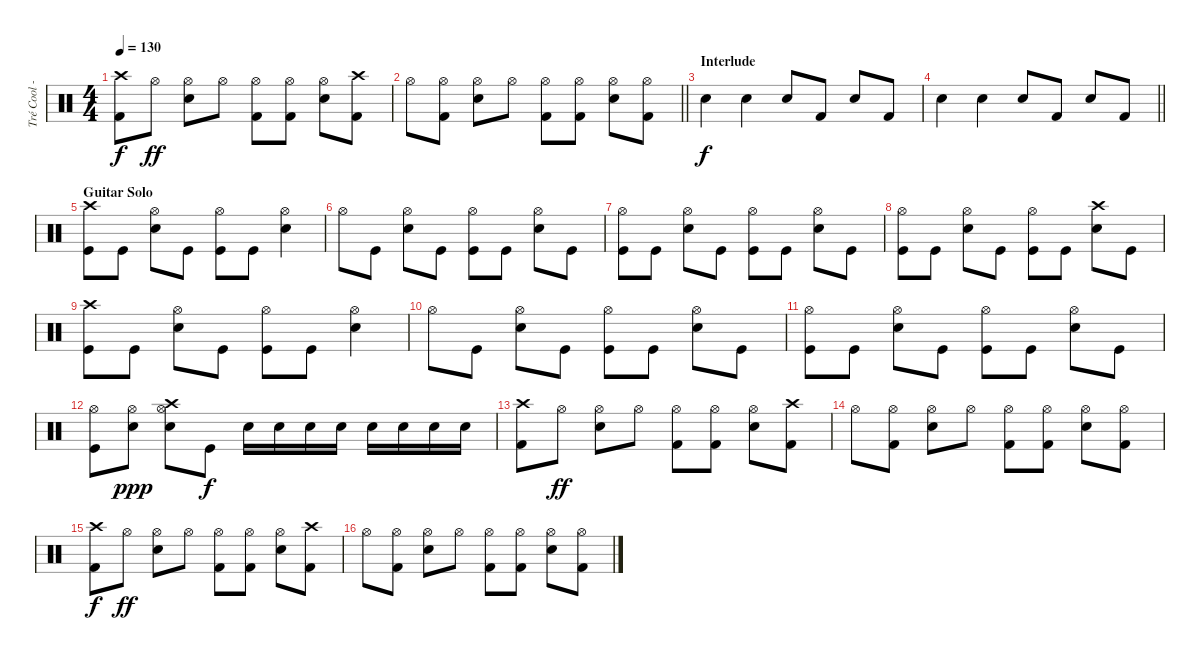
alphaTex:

\track ("Tré Cool - Drums" "Tré Cool -") {instrument percussion}
\staff {score}
\articulation defaults
\ts (4 4)
\tempo 130
\clef neutral
\ks c
("Crash high (hit)" "Kick (hit) 2").8{dy f} "Hi-Hat (open)".8{dy ff} ("Snare (hit) 2" "Hi-Hat (open)").8 "Hi-Hat (open)".8 ("Kick (hit) 2" "Hi-Hat (open)").8 ("Kick (hit) 2" "Hi-Hat (open)").8 ("Snare (hit) 2" "Hi-Hat (open)").8 ("Kick (hit) 2" "Crash high (hit)").8 |
\barLineRight lightlight "Hi-Hat (open)".8
("Kick (hit) 2" "Hi-Hat (open)").8 ("Snare (hit) 2" "Hi-Hat (open)").8 "Hi-Hat (open)".8 ("Kick (hit) 2" "Hi-Hat (open)").8 ("Kick (hit) 2" "Hi-Hat (open)").8 ("Snare (hit) 2" "Hi-Hat (open)").8 ("Kick (hit) 2" "Hi-Hat (open)").8 |
\section ("" "Interlude")
"Snare (hit) 2".4{dy f} "Snare (hit) 2".4 "Snare (hit) 2".8 "Kick (hit) 2".8 "Snare (hit) 2".8 "Kick (hit) 2".8 |
\barLineRight lightlight "Snare (hit) 2".4 "Snare (hit) 2".4 "Snare (hit) 2".8 "Kick (hit) 2".8 "Snare (hit) 2".8 "Kick (hit) 2".8
|
\section ("" "Guitar Solo")
("Kick (hit)" "Crash high (hit)").8 "Kick (hit)".8 ("Snare (hit) 2" "Hi-Hat (open)").8 "Kick (hit)".8 ("Kick (hit)" "Hi-Hat (open)").8 "Kick (hit)".8 ("Snare (hit) 2" "Hi-Hat (open)").4 |
"Hi-Hat (open)".8 "Kick (hit)".8 ("Snare (hit) 2" "Hi-Hat (open)").8 "Kick (hit)".8 ("Kick (hit)" "Hi-Hat (open)").8 "Kick (hit)".8 ("Snare (hit) 2" "Hi-Hat (open)").8 "Kick (hit)".8 |
("Kick (hit)" "Hi-Hat (open)").8 "Kick (hit)".8 ("Snare (hit) 2" "Hi-Hat (open)").8 "Kick (hit)".8 ("Kick (hit)" "Hi-Hat (open)").8 "Kick (hit)".8 ("Snare (hit) 2" "Hi-Hat (open)").8 "Kick (hit)".8 |
("Kick (hit)" "Hi-Hat (open)").8 "Kick (hit)".8 ("Snare (hit) 2" "Hi-Hat (open)").8 "Kick (hit)".8 ("Kick (hit)" "Hi-Hat (open)").8 "Kick (hit)".8 ("Snare (hit) 2" "Crash high (hit)").8 "Kick (hit)".8 |
("Kick (hit)" "Crash high (hit)").8 "Kick (hit)".8 ("Snare (hit) 2" "Hi-Hat (open)").8 "Kick (hit)".8 ("Kick (hit)" "Hi-Hat (open)").8 "Kick (hit)".8 ("Snare (hit) 2" "Hi-Hat (open)").4 |
"Hi-Hat (open)".8 "Kick (hit)".8 ("Snare (hit) 2" "Hi-Hat (open)").8 "Kick (hit)".8 ("Kick (hit)" "Hi-Hat (open)").8 "Kick (hit)".8 ("Snare (hit) 2" "Hi-Hat (open)").8 "Kick (hit)".8 |
("Kick (hit)" "Hi-Hat (open)").8 "Kick (hit)".8 ("Snare (hit) 2" "Hi-Hat (open)").8 "Kick (hit)".8 ("Kick (hit)" "Hi-Hat (open)").8 "Kick (hit)".8 ("Snare (hit) 2" "Hi-Hat (open)").8 "Kick (hit)".8 |
("Kick (hit)" "Hi-Hat (open)").8 ("Snare (hit) 2" "Hi-Hat (open)").8{dy ppp} ("Snare (hit) 2" "Crash high (hit)" "Hi-Hat (open)").8 "Kick (hit)".8{dy f} "Snare (hit) 2".16 "Snare (hit) 2".16 "Snare (hit) 2".16 "Snare (hit) 2".16 "Snare (hit) 2".16 "Snare (hit) 2".16 "Snare (hit) 2".16 "Snare (hit) 2".16 |
("Crash high (hit)" "Kick (hit) 2").8 "Hi-Hat (open)".8{dy ff} ("Snare (hit) 2" "Hi-Hat (open)").8 "Hi-Hat (open)".8 ("Kick (hit) 2" "Hi-Hat (open)").8 ("Kick (hit) 2" "Hi-Hat (open)").8 ("Snare (hit) 2" "Hi-Hat (open)").8 ("Kick (hit) 2" "Crash high (hit)").8 |
"Hi-Hat (open)".8 ("Kick (hit) 2" "Hi-Hat (open)").8 ("Snare (hit) 2" "Hi-Hat (open)").8 "Hi-Hat (open)".8 ("Kick (hit) 2" "Hi-Hat (open)").8 ("Kick (hit) 2" "Hi-Hat (open)").8 ("Snare (hit) 2" "Hi-Hat (open)").8 ("Kick (hit) 2" "Hi-Hat (open)").8 |
("Crash high (hit)" "Kick (hit) 2").8{dy f} "Hi-Hat (open)".8{dy ff} ("Snare (hit) 2" "Hi-Hat (open)").8 "Hi-Hat (open)".8 ("Kick (hit) 2" "Hi-Hat (open)").8 ("Kick (hit) 2" "Hi-Hat (open)").8 ("Snare (hit) 2" "Hi-Hat (open)").8 ("Kick (hit) 2" "Crash high (hit)").8 |
"Hi-Hat (open)".8 ("Kick (hit) 2" "Hi-Hat (open)").8 ("Snare (hit) 2" "Hi-Hat (open)").8 "Hi-Hat (open)".8 ("Kick (hit) 2" "Hi-Hat (open)").8 ("Kick (hit) 2" "Hi-Hat (open)").8 ("Snare (hit) 2" "Hi-Hat (open)").8 ("Kick (hit) 2" "Hi-Hat (open)").8
